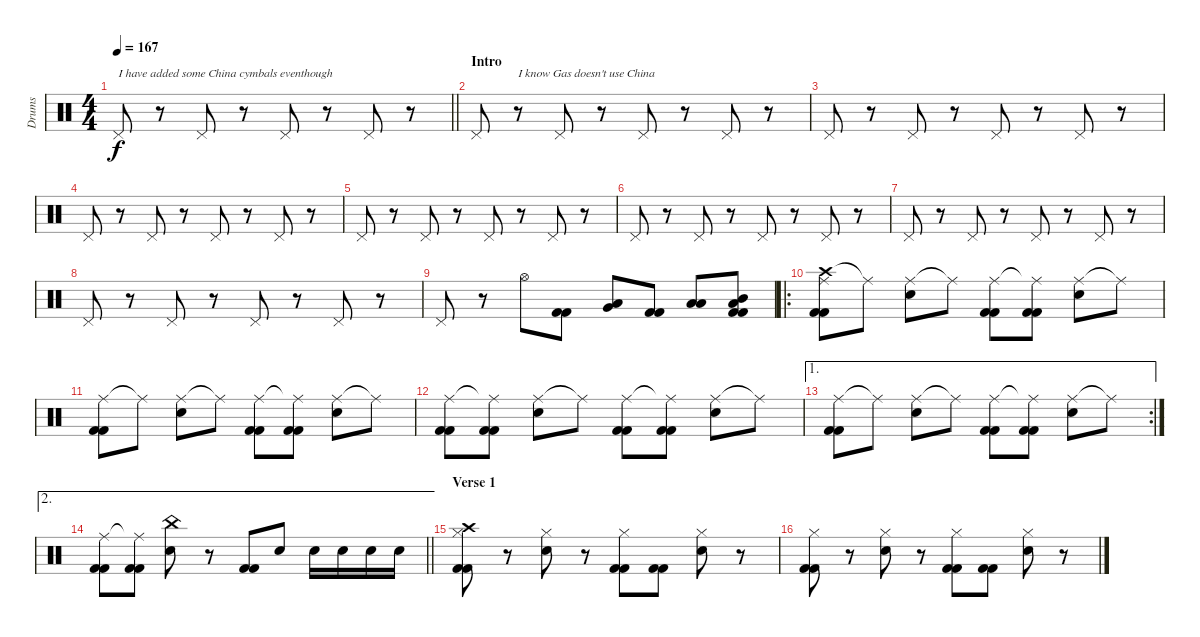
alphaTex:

\track ("Drums" "Drums") {instrument percussion}
\staff {score}
\articulation defaults
\ts (4 4)
\tempo 167
\clef neutral
\barLineRight lightlight
\ks c "Pedal Hi-Hat (hit)".8{txt "I have added some China cymbals eventhough" dy f}
r.8 "Pedal Hi-Hat (hit)".8 r.8 "Pedal Hi-Hat (hit)".8 r.8 "Pedal Hi-Hat (hit)".8 r.8 |
\section ("" "Intro")
"Pedal Hi-Hat (hit)".8 r.8{txt "I know Gas doesn't use China"} "Pedal Hi-Hat (hit)".8 r.8 "Pedal Hi-Hat (hit)".8 r.8 "Pedal Hi-Hat (hit)".8 r.8 |
"Pedal Hi-Hat (hit)".8 r.8 "Pedal Hi-Hat (hit)".8 r.8 "Pedal Hi-Hat (hit)".8 r.8 "Pedal Hi-Hat (hit)".8 r.8 |
"Pedal Hi-Hat (hit)".8 r.8 "Pedal Hi-Hat (hit)".8 r.8 "Pedal Hi-Hat (hit)".8 r.8 "Pedal Hi-Hat (hit)".8 r.8 |
"Pedal Hi-Hat (hit)".8 r.8 "Pedal Hi-Hat (hit)".8 r.8 "Pedal Hi-Hat (hit)".8 r.8 "Pedal Hi-Hat (hit)".8 r.8 |
"Pedal Hi-Hat (hit)".8 r.8 "Pedal Hi-Hat (hit)".8 r.8 "Pedal Hi-Hat (hit)".8 r.8 "Pedal Hi-Hat (hit)".8 r.8 |
"Pedal Hi-Hat (hit)".8 r.8 "Pedal Hi-Hat (hit)".8 r.8 "Pedal Hi-Hat (hit)".8 r.8 "Pedal Hi-Hat (hit)".8 r.8 |
"Pedal Hi-Hat (hit)".8 r.8 "Pedal Hi-Hat (hit)".8 r.8 "Pedal Hi-Hat (hit)".8 r.8 "Pedal Hi-Hat (hit)".8 r.8 |
"Pedal Hi-Hat (hit)".8 r.8 "Hi-Hat (open)".8 ("Kick (hit) 2" "Kick (hit) 2").8 ("Low Floor Tom (hit)" "Very Low Tom (hit)").8 ("Kick (hit) 2" "Kick (hit) 2").8 ("Low Floor Tom (hit)" "Low Tom (hit)").8 ("Low Floor Tom (hit)" "Mid Tom (hit)" "Kick (hit) 2" "Kick (hit) 2").8 |
\ro
("Crash high (hit)" "Ride (middle)" "Kick (hit) 2" "Kick (hit) 2").8 "Ride (middle)"{t}.8 ("Ride (middle)" "Electric Snare (hit)").8 "Ride (middle)"{t}.8 ("Ride (middle)" "Kick (hit) 2" "Kick (hit) 2").8 ("Ride (middle)"{t} "Kick (hit) 2" "Kick (hit) 2").8 ("Ride (middle)" "Electric Snare (hit)").8 "Ride (middle)"{t}.8 |
("Ride (middle)" "Kick (hit) 2" "Kick (hit) 2").8 "Ride (middle)"{t}.8 ("Ride (middle)" "Electric Snare (hit)").8 "Ride (middle)"{t}.8 ("Ride (middle)" "Kick (hit) 2" "Kick (hit) 2").8 ("Ride (middle)"{t} "Kick (hit) 2" "Kick (hit) 2").8 ("Ride (middle)" "Electric Snare (hit)").8 "Ride (middle)"{t}.8 |
("Ride (middle)" "Kick (hit) 2" "Kick (hit) 2").8 ("Ride (middle)"{t} "Kick (hit) 2" "Kick (hit) 2").8 ("Ride (middle)" "Electric Snare (hit)").8 "Ride (middle)"{t}.8 ("Ride (middle)" "Kick (hit) 2" "Kick (hit) 2").8 ("Ride (middle)"{t} "Kick (hit) 2" "Kick (hit) 2").8 ("Ride (middle)" "Electric Snare (hit)").8 "Ride (middle)"{t}.8 |
\ae 1
\rc 2
("Ride (middle)" "Kick (hit) 2" "Kick (hit) 2").8 "Ride (middle)"{t}.8 ("Ride (middle)" "Electric Snare (hit)").8 "Ride (middle)"{t}.8 ("Ride (middle)" "Kick (hit) 2" "Kick (hit) 2").8 ("Ride (middle)"{t} "Kick (hit) 2" "Kick (hit) 2").8 ("Ride (middle)" "Electric Snare (hit)").8 "Ride (middle)"{t}.8 |
\ae 2
\barLineRight lightlight
("Ride (middle)" "Kick (hit) 2" "Kick (hit) 2").8 ("Ride (middle)"{t} "Kick (hit) 2" "Kick (hit) 2").8 ("China (hit)" "Electric Snare (hit)").8 r.8 ("Kick (hit) 2" "Kick (hit) 2").8 "Electric Snare (hit)".8 "Electric Snare (hit)".16 "Electric Snare (hit)".16 "Electric Snare (hit)".16 "Electric Snare (hit)".16 |
\section ("" "Verse 1")
("Crash high (hit)" "Hi-Hat (closed)" "Kick (hit) 2" "Kick (hit) 2").8 r.8 ("Hi-Hat (closed)" "Electric Snare (hit)").8 r.8 ("Hi-Hat (closed)" "Kick (hit) 2" "Kick (hit) 2").8 ("Kick (hit) 2" "Kick (hit) 2").8 ("Hi-Hat (closed)" "Electric Snare (hit)").8 r.8 |
("Hi-Hat (closed)" "Kick (hit) 2" "Kick (hit) 2").8 r.8 ("Hi-Hat (closed)" "Electric Snare (hit)").8 r.8 ("Hi-Hat (closed)" "Kick (hit) 2" "Kick (hit) 2").8 ("Kick (hit) 2" "Kick (hit) 2").8 ("Hi-Hat (closed)" "Electric Snare (hit)").8 r.8
